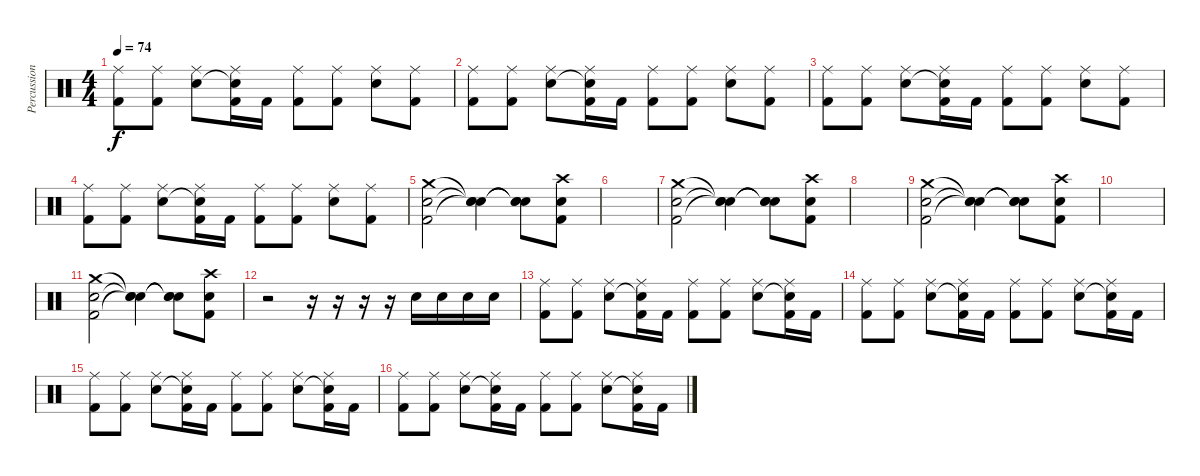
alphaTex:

\track ("Percussion" "Percussion") {instrument percussion}
\staff {score}
\articulation defaults
\ts (4 4)
\tempo 74
\clef neutral
\ks c
("Ride (middle)" "Kick (hit) 2").8{dy f} ("Ride (middle)" "Kick (hit) 2").8 ("Ride (middle)" "Electric Snare (hit)").8 ("Ride (middle)" "Snare (hit)"{t} "Kick (hit) 2").16 "Kick (hit) 2".16 ("Ride (middle)" "Kick (hit) 2").8 ("Ride (middle)" "Kick (hit) 2").8 ("Ride (middle)" "Electric Snare (hit)").8 ("Ride (middle)" "Kick (hit) 2").8 |
("Ride (middle)" "Kick (hit) 2").8 ("Ride (middle)" "Kick (hit) 2").8 ("Ride (middle)" "Electric Snare (hit)").8 ("Ride (middle)" "Snare (hit)"{t} "Kick (hit) 2").16 "Kick (hit) 2".16 ("Ride (middle)" "Kick (hit) 2").8 ("Ride (middle)" "Kick (hit) 2").8 ("Ride (middle)" "Electric Snare (hit)").8 ("Ride (middle)" "Kick (hit) 2").8 |
("Ride (middle)" "Kick (hit) 2").8 ("Ride (middle)" "Kick (hit) 2").8 ("Ride (middle)" "Electric Snare (hit)").8 ("Ride (middle)" "Snare (hit)"{t} "Kick (hit) 2").16 "Kick (hit) 2".16 ("Ride (middle)" "Kick (hit) 2").8 ("Ride (middle)" "Kick (hit) 2").8 ("Ride (middle)" "Electric Snare (hit)").8 ("Ride (middle)" "Kick (hit) 2").8 |
("Ride (middle)" "Kick (hit) 2").8 ("Ride (middle)" "Kick (hit) 2").8 ("Ride (middle)" "Electric Snare (hit)").8 ("Ride (middle)" "Snare (hit)"{t} "Kick (hit) 2").16 "Kick (hit) 2".16 ("Ride (middle)" "Kick (hit) 2").8 ("Ride (middle)" "Kick (hit) 2").8 ("Ride (middle)" "Electric Snare (hit)").8 ("Ride (middle)" "Kick (hit) 2").8 |
("Crash medium (hit)" "Electric Snare (hit)" "Kick (hit) 2").2 ("Snare (hit)"{t} "Snare (hit)"{t} "Snare (hit)"{t}).4 ("Snare (hit)"{t} "Snare (hit)"{t} "Snare (hit)"{t}).8 ("Crash high (hit)" "Electric Snare (hit)" "Kick (hit) 2").8 |
|
("Crash medium (hit)" "Electric Snare (hit)" "Kick (hit) 2").2 ("Snare (hit)"{t} "Snare (hit)"{t} "Snare (hit)"{t}).4 ("Snare (hit)"{t} "Snare (hit)"{t} "Snare (hit)"{t}).8 ("Crash high (hit)" "Electric Snare (hit)" "Kick (hit) 2").8 |
|
("Crash medium (hit)" "Electric Snare (hit)" "Kick (hit) 2").2 ("Snare (hit)"{t} "Snare (hit)"{t} "Snare (hit)"{t}).4 ("Snare (hit)"{t} "Snare (hit)"{t} "Snare (hit)"{t}).8 ("Crash high (hit)" "Electric Snare (hit)" "Kick (hit) 2").8 |
|
("Crash medium (hit)" "Electric Snare (hit)" "Kick (hit) 2").2 ("Snare (hit)"{t} "Snare (hit)"{t} "Snare (hit)"{t}).4 ("Snare (hit)"{t} "Snare (hit)"{t} "Snare (hit)"{t}).8 ("Crash high (hit)" "Electric Snare (hit)" "Kick (hit) 2").8 |
r.2 r.16 r.16 r.16 r.16 "Electric Snare (hit)".16 "Electric Snare (hit)".16 "Electric Snare (hit)".16 "Electric Snare (hit)".16 |
("Ride (middle)" "Kick (hit) 2").8 ("Ride (middle)" "Kick (hit) 2").8 ("Ride (middle)" "Electric Snare (hit)").8 ("Ride (middle)" "Snare (hit)"{t} "Kick (hit) 2").16 "Kick (hit) 2".16 ("Ride (middle)" "Kick (hit) 2").8 ("Ride (middle)" "Kick (hit) 2").8 ("Ride (middle)" "Electric Snare (hit)").8 ("Ride (middle)" "Snare (hit)"{t} "Kick (hit) 2").16 "Kick (hit) 2".16 |
("Ride (middle)" "Kick (hit) 2").8 ("Ride (middle)" "Kick (hit) 2").8 ("Ride (middle)" "Electric Snare (hit)").8 ("Ride (middle)" "Snare (hit)"{t} "Kick (hit) 2").16 "Kick (hit) 2".16 ("Ride (middle)" "Kick (hit) 2").8 ("Ride (middle)" "Kick (hit) 2").8 ("Ride (middle)" "Electric Snare (hit)").8 ("Ride (middle)" "Snare (hit)"{t} "Kick (hit) 2").16 "Kick (hit) 2".16 |
("Ride (middle)" "Kick (hit) 2").8 ("Ride (middle)" "Kick (hit) 2").8 ("Ride (middle)" "Electric Snare (hit)").8 ("Ride (middle)" "Snare (hit)"{t} "Kick (hit) 2").16 "Kick (hit) 2".16 ("Ride (middle)" "Kick (hit) 2").8 ("Ride (middle)" "Kick (hit) 2").8 ("Ride (middle)" "Electric Snare (hit)").8 ("Ride (middle)" "Snare (hit)"{t} "Kick (hit) 2").16 "Kick (hit) 2".16 |
("Ride (middle)" "Kick (hit) 2").8 ("Ride (middle)" "Kick (hit) 2").8 ("Ride (middle)" "Electric Snare (hit)").8 ("Ride (middle)" "Snare (hit)"{t} "Kick (hit) 2").16 "Kick (hit) 2".16 ("Ride (middle)" "Kick (hit) 2").8 ("Ride (middle)" "Kick (hit) 2").8 ("Ride (middle)" "Electric Snare (hit)").8 ("Ride (middle)" "Snare (hit)"{t} "Kick (hit) 2").16 "Kick (hit) 2".16
